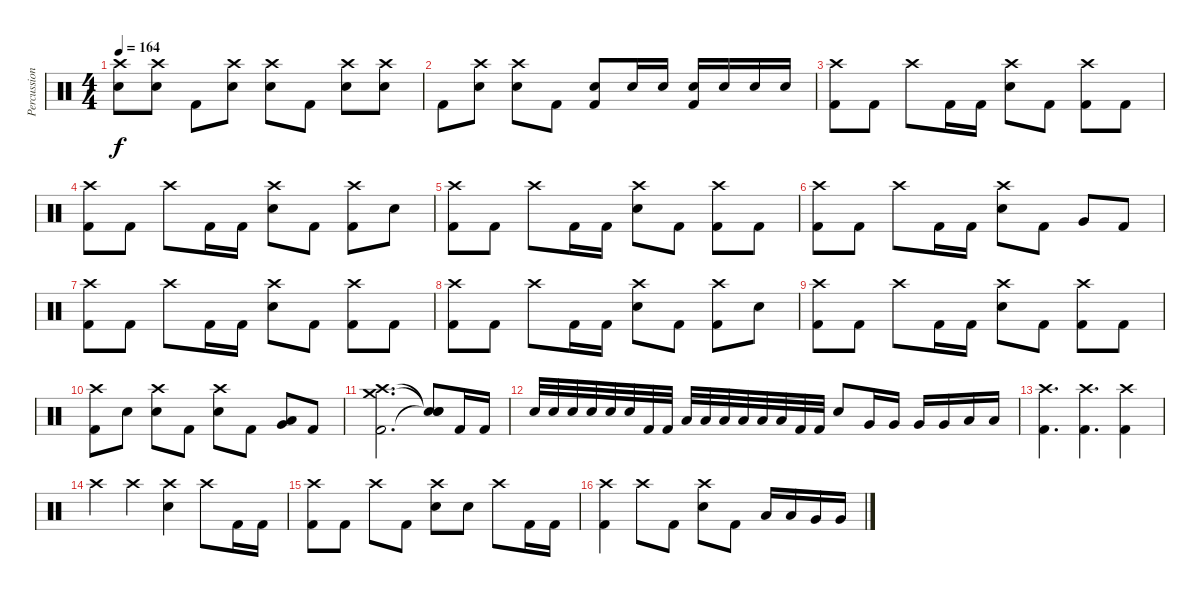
\track ("Percussion" "Percussion") {instrument percussion}
\staff {score}
\articulation defaults
\ts (4 4)
\tempo 164
\clef neutral
\ks c
("Crash high (hit)" "Electric Snare (hit)").8{dy f} ("Crash high (hit)" "Electric Snare (hit)").8 "Kick (hit) 2".8 ("Crash high (hit)" "Electric Snare (hit)").8 ("Crash high (hit)" "Electric Snare (hit)").8 "Kick (hit) 2".8 ("Crash high (hit)" "Electric Snare (hit)").8 ("Crash high (hit)" "Electric Snare (hit)").8 |
"Kick (hit) 2".8 ("Crash high (hit)" "Electric Snare (hit)").8 ("Crash high (hit)" "Electric Snare (hit)").8 "Kick (hit) 2".8 ("Electric Snare (hit)" "Kick (hit) 2").8 "Electric Snare (hit)".16 "Electric Snare (hit)".16 ("Electric Snare (hit)" "Kick (hit) 2").16 "Electric Snare (hit)".16 "Electric Snare (hit)".16 "Electric Snare (hit)".16 |
("Crash high (hit)" "Kick (hit) 2").8 "Kick (hit) 2".8 "Crash high (hit)".8 "Kick (hit) 2".16 "Kick (hit) 2".16 ("Crash high (hit)" "Electric Snare (hit)").8 "Kick (hit) 2".8 ("Crash high (hit)" "Kick (hit) 2").8 "Kick (hit) 2".8 |
("Crash high (hit)" "Kick (hit) 2").8 "Kick (hit) 2".8 "Crash high (hit)".8 "Kick (hit) 2".16 "Kick (hit) 2".16 ("Crash high (hit)" "Electric Snare (hit)").8 "Kick (hit) 2".8 ("Crash high (hit)" "Kick (hit) 2").8 "Electric Snare (hit)".8 |
("Crash high (hit)" "Kick (hit) 2").8 "Kick (hit) 2".8 "Crash high (hit)".8 "Kick (hit) 2".16 "Kick (hit) 2".16 ("Crash high (hit)" "Electric Snare (hit)").8 "Kick (hit) 2".8 ("Crash high (hit)" "Kick (hit) 2").8 "Kick (hit) 2".8 |
("Crash high (hit)" "Kick (hit) 2").8 "Kick (hit) 2".8 "Crash high (hit)".8 "Kick (hit) 2".16 "Kick (hit) 2".16 ("Crash high (hit)" "Electric Snare (hit)").8 "Kick (hit) 2".8 "Very Low Tom (hit)".8 "Kick (hit) 2".8 |
("Crash high (hit)" "Kick (hit) 2").8 "Kick (hit) 2".8 "Crash high (hit)".8 "Kick (hit) 2".16 "Kick (hit) 2".16 ("Crash high (hit)" "Electric Snare (hit)").8 "Kick (hit) 2".8 ("Crash high (hit)" "Kick (hit) 2").8 "Kick (hit) 2".8 |
("Crash high (hit)" "Kick (hit) 2").8 "Kick (hit) 2".8 "Crash high (hit)".8 "Kick (hit) 2".16 "Kick (hit) 2".16 ("Crash high (hit)" "Electric Snare (hit)").8 "Kick (hit) 2".8 ("Crash high (hit)" "Kick (hit) 2").8 "Electric Snare (hit)".8 |
("Crash high (hit)" "Kick (hit) 2").8 "Kick (hit) 2".8 "Crash high (hit)".8 "Kick (hit) 2".16 "Kick (hit) 2".16 ("Crash high (hit)" "Electric Snare (hit)").8 "Kick (hit) 2".8 ("Crash high (hit)" "Kick (hit) 2").8 "Kick (hit) 2".8 |
("Crash high (hit)" "Kick (hit) 2").8 "Electric Snare (hit)".8 ("Crash high (hit)" "Electric Snare (hit)").8 "Kick (hit) 2".8 ("Crash high (hit)" "Electric Snare (hit)").8 "Kick (hit) 2".8 ("Very Low Tom (hit)" "Low Tom (hit)").8 "Kick (hit) 2".8 |
("Crash high (hit)" "Crash medium (hit)" "Kick (hit) 2").2{d} ("Snare (hit)"{t} "Snare (hit)"{t} "Snare (hit)"{t}).8 "Kick (hit) 2".16 "Kick (hit) 2".16 |
"Electric Snare (hit)".32 "Electric Snare (hit)".32 "Electric Snare (hit)".32 "Electric Snare (hit)".32 "Electric Snare (hit)".32 "Electric Snare (hit)".32 "Kick (hit) 2".32 "Kick (hit) 2".32 "Low Tom (hit)".32 "Low Tom (hit)".32 "Low Tom (hit)".32 "Low Tom (hit)".32 "Low Tom (hit)".32 "Low Tom (hit)".32 "Kick (hit) 2".32 "Kick (hit) 2".32 "Electric Snare (hit)".8 "Very Low Tom (hit)".16 "Very Low Tom (hit)".16 "Very Low Tom (hit)".16 "Very Low Tom (hit)".16 "Low Floor Tom (hit)".16 "Low Floor Tom (hit)".16 |
("Crash high (hit)" "Kick (hit) 2").4{d} ("Crash high (hit)" "Kick (hit) 2").4{d} ("Crash high (hit)" "Kick (hit) 2").4 |
"Crash high (hit)".4 "Crash high (hit)".4 ("Crash high (hit)" "Electric Snare (hit)").4 "Crash high (hit)".8 "Kick (hit) 2".16 "Kick (hit) 2".16 |
("Crash high (hit)" "Kick (hit) 2").8 "Kick (hit) 2".8 "Crash high (hit)".8 "Kick (hit) 2".8 ("Crash high (hit)" "Electric Snare (hit)").8 "Electric Snare (hit)".8 "Crash high (hit)".8 "Kick (hit) 2".16 "Kick (hit) 2".16 |
("Crash high (hit)" "Kick (hit) 2").4 "Crash high (hit)".8 "Kick (hit) 2".8 ("Crash high (hit)" "Electric Snare (hit)").8 "Kick (hit) 2".8 "Low Tom (hit)".16 "Low Tom (hit)".16 "Very Low Tom (hit)".16 "Very Low Tom (hit)".16
